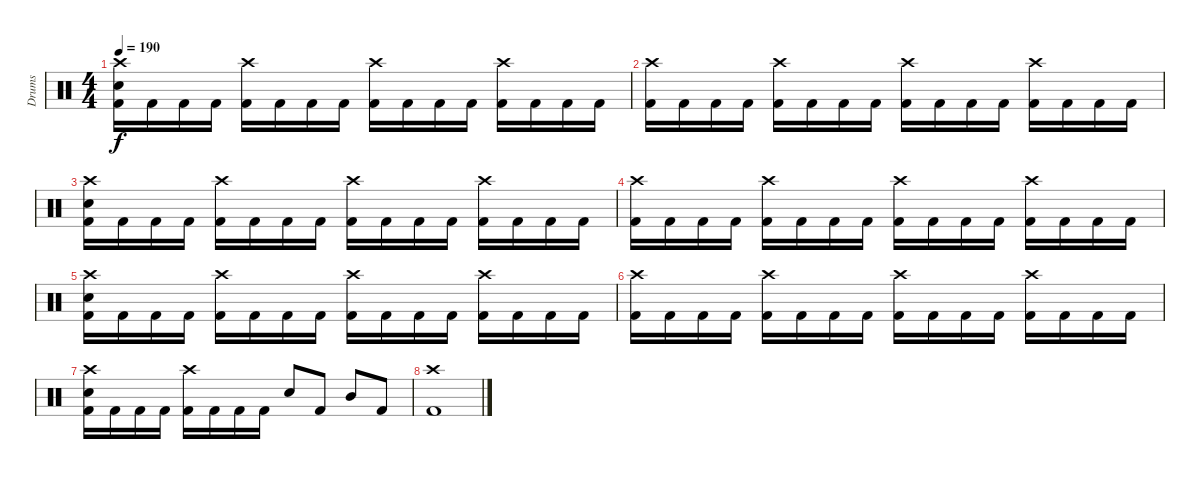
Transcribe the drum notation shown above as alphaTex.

\track ("Drums" "Drums") {instrument percussion}
\staff {score}
\articulation defaults
\ts (4 4)
\tempo 190
\clef neutral
\ks c
("Crash high (hit)" "Electric Snare (hit)" "Kick (hit) 2").16{dy f} "Kick (hit) 2".16 "Kick (hit) 2".16 "Kick (hit) 2".16 ("Crash high (hit)" "Kick (hit) 2").16 "Kick (hit) 2".16 "Kick (hit) 2".16 "Kick (hit) 2".16 ("Crash high (hit)" "Kick (hit) 2").16 "Kick (hit) 2".16 "Kick (hit) 2".16 "Kick (hit) 2".16 ("Crash high (hit)" "Kick (hit) 2").16 "Kick (hit) 2".16 "Kick (hit) 2".16 "Kick (hit) 2".16 |
("Crash high (hit)" "Kick (hit) 2").16 "Kick (hit) 2".16 "Kick (hit) 2".16 "Kick (hit) 2".16 ("Crash high (hit)" "Kick (hit) 2").16 "Kick (hit) 2".16 "Kick (hit) 2".16 "Kick (hit) 2".16 ("Crash high (hit)" "Kick (hit) 2").16 "Kick (hit) 2".16 "Kick (hit) 2".16 "Kick (hit) 2".16 ("Crash high (hit)" "Kick (hit) 2").16 "Kick (hit) 2".16 "Kick (hit) 2".16 "Kick (hit) 2".16 |
("Crash high (hit)" "Electric Snare (hit)" "Kick (hit) 2").16 "Kick (hit) 2".16 "Kick (hit) 2".16 "Kick (hit) 2".16 ("Crash high (hit)" "Kick (hit) 2").16 "Kick (hit) 2".16 "Kick (hit) 2".16 "Kick (hit) 2".16 ("Crash high (hit)" "Kick (hit) 2").16 "Kick (hit) 2".16 "Kick (hit) 2".16 "Kick (hit) 2".16 ("Crash high (hit)" "Kick (hit) 2").16 "Kick (hit) 2".16 "Kick (hit) 2".16 "Kick (hit) 2".16 |
("Crash high (hit)" "Kick (hit) 2").16 "Kick (hit) 2".16 "Kick (hit) 2".16 "Kick (hit) 2".16 ("Crash high (hit)" "Kick (hit) 2").16 "Kick (hit) 2".16 "Kick (hit) 2".16 "Kick (hit) 2".16 ("Crash high (hit)" "Kick (hit) 2").16 "Kick (hit) 2".16 "Kick (hit) 2".16 "Kick (hit) 2".16 ("Crash high (hit)" "Kick (hit) 2").16 "Kick (hit) 2".16 "Kick (hit) 2".16 "Kick (hit) 2".16 |
("Crash high (hit)" "Electric Snare (hit)" "Kick (hit) 2").16 "Kick (hit) 2".16 "Kick (hit) 2".16 "Kick (hit) 2".16 ("Crash high (hit)" "Kick (hit) 2").16 "Kick (hit) 2".16 "Kick (hit) 2".16 "Kick (hit) 2".16 ("Crash high (hit)" "Kick (hit) 2").16 "Kick (hit) 2".16 "Kick (hit) 2".16 "Kick (hit) 2".16 ("Crash high (hit)" "Kick (hit) 2").16 "Kick (hit) 2".16 "Kick (hit) 2".16 "Kick (hit) 2".16 |
("Crash high (hit)" "Kick (hit) 2").16 "Kick (hit) 2".16 "Kick (hit) 2".16 "Kick (hit) 2".16 ("Crash high (hit)" "Kick (hit) 2").16 "Kick (hit) 2".16 "Kick (hit) 2".16 "Kick (hit) 2".16 ("Crash high (hit)" "Kick (hit) 2").16 "Kick (hit) 2".16 "Kick (hit) 2".16 "Kick (hit) 2".16 ("Crash high (hit)" "Kick (hit) 2").16 "Kick (hit) 2".16 "Kick (hit) 2".16 "Kick (hit) 2".16 |
("Crash high (hit)" "Electric Snare (hit)" "Kick (hit) 2").16 "Kick (hit) 2".16 "Kick (hit) 2".16 "Kick (hit) 2".16 ("Crash high (hit)" "Kick (hit) 2").16 "Kick (hit) 2".16 "Kick (hit) 2".16 "Kick (hit) 2".16 "Electric Snare (hit)".8 "Kick (hit) 2".8 "Mid Tom (hit)".8 "Kick (hit) 2".8 |
("Crash high (hit)" "Kick (hit) 2").1
